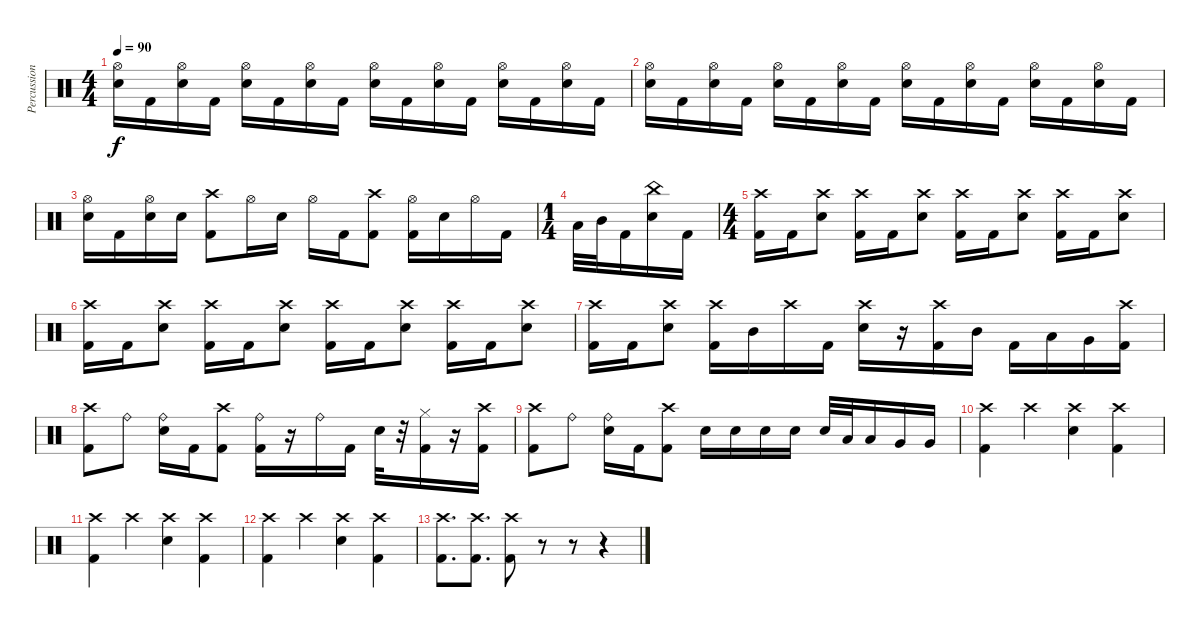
\track ("Percussion" "Percussion") {instrument percussion}
\staff {score}
\articulation defaults
\ts (4 4)
\tempo 90
\clef neutral
\ks c
("Hi-Hat (open)" "Snare (hit) 2").16{dy f} "Kick (hit) 2".16 ("Hi-Hat (open)" "Snare (hit) 2").16 "Kick (hit) 2".16 ("Hi-Hat (open)" "Snare (hit) 2").16 "Kick (hit) 2".16 ("Hi-Hat (open)" "Snare (hit) 2").16 "Kick (hit) 2".16 ("Hi-Hat (open)" "Snare (hit) 2").16 "Kick (hit) 2".16 ("Hi-Hat (open)" "Snare (hit) 2").16 "Kick (hit) 2".16 ("Hi-Hat (open)" "Snare (hit) 2").16 "Kick (hit) 2".16 ("Hi-Hat (open)" "Snare (hit) 2").16 "Kick (hit) 2".16 |
("Hi-Hat (open)" "Snare (hit) 2").16 "Kick (hit) 2".16 ("Hi-Hat (open)" "Snare (hit) 2").16 "Kick (hit) 2".16 ("Hi-Hat (open)" "Snare (hit) 2").16 "Kick (hit) 2".16 ("Hi-Hat (open)" "Snare (hit) 2").16 "Kick (hit) 2".16 ("Hi-Hat (open)" "Snare (hit) 2").16 "Kick (hit) 2".16 ("Hi-Hat (open)" "Snare (hit) 2").16 "Kick (hit) 2".16 ("Hi-Hat (open)" "Snare (hit) 2").16 "Kick (hit) 2".16 ("Hi-Hat (open)" "Snare (hit) 2").16 "Kick (hit) 2".16 |
("Hi-Hat (open)" "Snare (hit) 2").16 "Kick (hit) 2".16 ("Hi-Hat (open)" "Snare (hit) 2").16 "Snare (hit) 2".16 ("Crash high (hit)" "Kick (hit) 2").8 "Hi-Hat (open)".16 "Snare (hit) 2".16 "Hi-Hat (open)".16 "Kick (hit) 2".16 ("Crash high (hit)" "Kick (hit) 2").8 ("Hi-Hat (open)" "Kick (hit) 2").16 "Snare (hit) 2".16 "Hi-Hat (open)".16 "Kick (hit) 2".16 |
\ts (1 4)
"Low Tom (hit)".32 "Mid Tom (hit)".32 "Kick (hit) 2".16 ("China (hit)" "Snare (hit) 2").16 "Kick (hit) 2".16 |
\ts (4 4)
("Crash high (hit)" "Kick (hit) 2").16 "Kick (hit) 2".16 ("Crash high (hit)" "Snare (hit) 2").8 ("Crash high (hit)" "Kick (hit) 2").16 "Kick (hit) 2".16 ("Crash high (hit)" "Snare (hit) 2").8 ("Crash high (hit)" "Kick (hit) 2").16 "Kick (hit) 2".16 ("Crash high (hit)" "Snare (hit) 2").8 ("Crash high (hit)" "Kick (hit) 2").16 "Kick (hit) 2".16 ("Crash high (hit)" "Snare (hit) 2").8 |
("Crash high (hit)" "Kick (hit) 2").16 "Kick (hit) 2".16 ("Crash high (hit)" "Snare (hit) 2").8 ("Crash high (hit)" "Kick (hit) 2").16 "Kick (hit) 2".16 ("Crash high (hit)" "Snare (hit) 2").8 ("Crash high (hit)" "Kick (hit) 2").16 "Kick (hit) 2".16 ("Crash high (hit)" "Snare (hit) 2").8 ("Crash high (hit)" "Kick (hit) 2").16 "Kick (hit) 2".16 ("Crash high (hit)" "Snare (hit) 2").8 |
("Crash high (hit)" "Kick (hit) 2").16 "Kick (hit) 2".16 ("Crash high (hit)" "Snare (hit) 2").8 ("Crash high (hit)" "Kick (hit) 2").16 "Mid Tom (hit)".16 "Crash high (hit)".16 "Kick (hit) 2".16 ("Crash high (hit)" "Snare (hit) 2").16 r.16 ("Crash high (hit)" "Kick (hit) 2").16 "Mid Tom (hit)".16 "Kick (hit) 2".16 "Low Tom (hit)".16 "Very Low Tom (hit)".16 ("Crash high (hit)" "Kick (hit) 2").16 |
("Crash high (hit)" "Kick (hit) 2").8 "Ride (bell)".8 ("Ride (bell)" "Snare (hit) 2").16 "Kick (hit) 2".16 ("Crash high (hit)" "Kick (hit) 2").8 ("Ride (bell)" "Kick (hit) 2").16 r.16 "Ride (bell)".16 "Kick (hit) 2".16 "Snare (hit) 2".32 r.32 ("Hi-Hat (closed)" "Kick (hit) 2").16 r.16 ("Crash high (hit)" "Kick (hit) 2").16 |
("Crash high (hit)" "Kick (hit) 2").8 "Ride (bell)".8 ("Ride (bell)" "Snare (hit) 2").16 "Kick (hit) 2".16 ("Crash high (hit)" "Kick (hit) 2").8 "Snare (hit) 2".16 "Snare (hit) 2".16 "Snare (hit) 2".16 "Snare (hit) 2".16 "Snare (hit) 2".32 "Low Tom (hit)".32 "Low Tom (hit)".16 "Very Low Tom (hit)".16 "Very Low Tom (hit)".16 |
("Crash high (hit)" "Kick (hit) 2").4 "Crash high (hit)".4 ("Crash high (hit)" "Snare (hit) 2").4 ("Crash high (hit)" "Kick (hit) 2").4 |
("Crash high (hit)" "Kick (hit) 2").4 "Crash high (hit)".4 ("Crash high (hit)" "Snare (hit) 2").4 ("Crash high (hit)" "Kick (hit) 2").4 |
("Crash high (hit)" "Kick (hit) 2").4 "Crash high (hit)".4 ("Crash high (hit)" "Snare (hit) 2").4 ("Crash high (hit)" "Kick (hit) 2").4 |
("Crash high (hit)" "Kick (hit) 2").8{d} ("Crash high (hit)" "Kick (hit) 2").8{d} ("Crash high (hit)" "Kick (hit) 2").8 r.8 r.8 r.4
